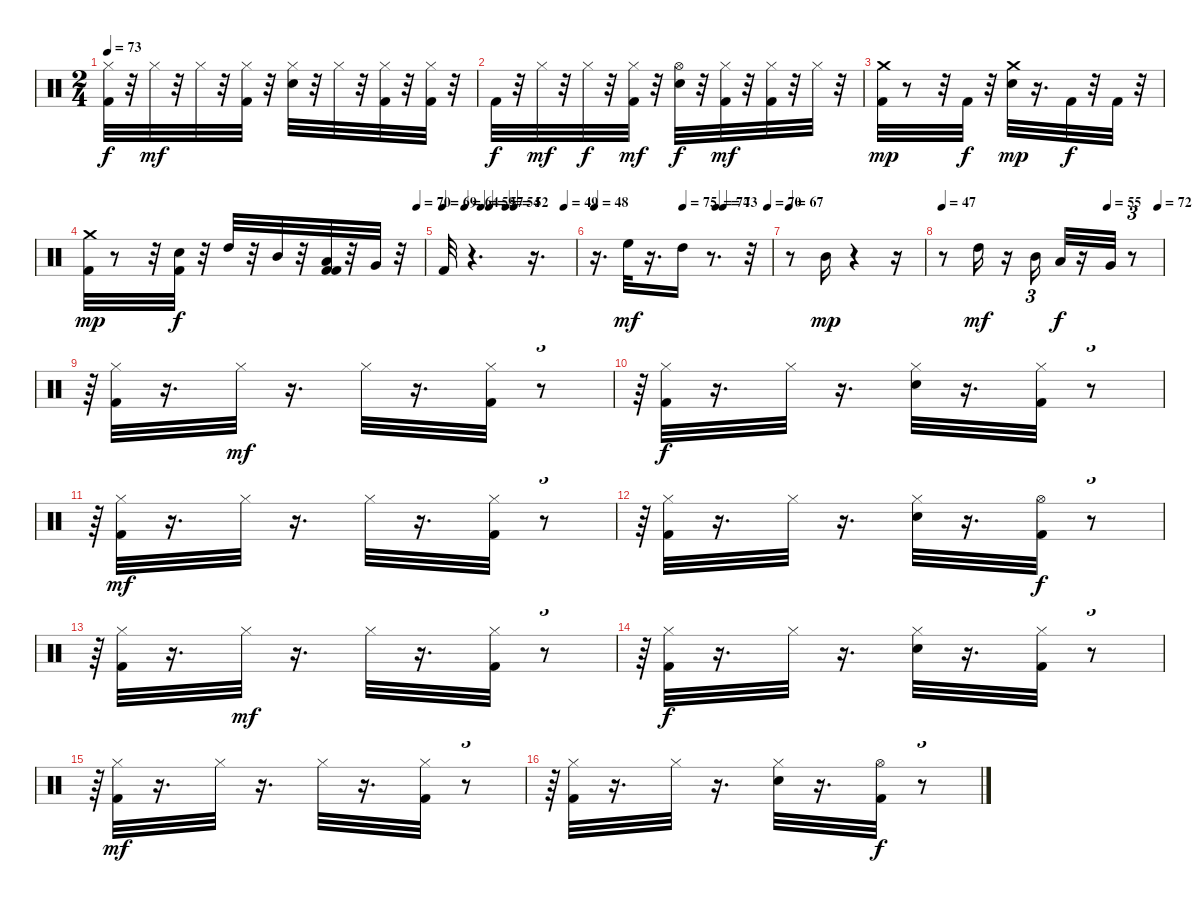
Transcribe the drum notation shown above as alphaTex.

\track "" {instrument percussion}
\staff {score}
\articulation defaults
\ts (2 4)
\tempo 73
\clef neutral
\ks c
("Hi-Hat (closed)" "Kick (hit) 2").32{dy f} r.32 "Hi-Hat (closed)".32{dy mf} r.32 "Hi-Hat (closed)".32 r.32 ("Hi-Hat (closed)" "Kick (hit) 2").32 r.32 ("Hi-Hat (closed)" "Snare (hit) 2").32 r.32 "Hi-Hat (closed)".32 r.32 ("Kick (hit) 2" "Hi-Hat (closed)").32 r.32 ("Kick (hit) 2" "Hi-Hat (closed)").32 r.32 |
"Kick (hit) 2".32{dy f} r.32 "Hi-Hat (closed)".32{dy mf} r.32 "Hi-Hat (closed)".32{dy f} r.32 ("Kick (hit) 2" "Hi-Hat (closed)").32{dy mf} r.32 ("Snare (hit) 2" "Hi-Hat (open)").32{dy f} r.32 ("Kick (hit) 2" "Hi-Hat (closed)").32{dy mf} r.32 ("Hi-Hat (closed)" "Kick (hit) 2").32 r.32 "Hi-Hat (closed)".32 r.32 |
("Crash medium (hit)" "Kick (hit) 2").32{dy mp} r.8 r.32 "Kick (hit) 2".32{dy f} r.32 ("Snare (hit) 2" "Crash medium (hit)").32{dy mp} r.16{d} "Kick (hit) 2".32{dy f} r.32 "Kick (hit) 2".32 r.32 |
\tempo (70 0.9791666666666666)
("Kick (hit) 2" "Crash medium (hit)").32{dy mp} r.8 r.32 ("Kick (hit) 2" "Snare (hit) 2").32{dy f} r.32 "High Tom (hit)".32 r.32 "Mid Tom (hit)".32 r.32 ("Kick (hit) 2" "Low Tom (hit)" "Kick (hit) 2").32 r.32 "Very Low Tom (hit)".32 r.32 |
\tempo 69
\tempo (64 0.16666666666666666)
\tempo (59 0.2916666666666667)
\tempo (57 0.3541666666666667)
\tempo (54 0.4791666666666667)
\tempo (52 0.5416666666666666)
\tempo (49 0.9166666666666666)
"Kick (hit) 2".32 r.4{d} r.16{d} |
\tempo 48
\tempo (75 0.5)
\tempo (74 0.6875)
\tempo (73 0.7291666666666666)
\tempo (70 0.9791666666666666)
r.16{d} "High Floor Tom (hit)".32{dy mf} r.16{d} "High Tom (hit)".16 r.8{d} r.32 |
\tempo 67
r.8 "Mid Tom (hit)".16{dy mp} r.4 r.16 |
\tempo 47
\tempo (55 0.75)
\tempo (72 0.9791666666666666)
r.8 "High Tom (hit)".16{dy mf} r.16 "Mid Tom (hit)".16{tu (3 2)} "Low Tom (hit)".32{dy f} r.16 "Very Low Tom (hit)".32 r.8{tu (3 2)} |
r.64{tu (3 2)} ("Hi-Hat (closed)" "Kick (hit) 2").32 r.16{d} "Hi-Hat (closed)".32{dy mf} r.16{d} "Hi-Hat (closed)".32 r.16{d} ("Hi-Hat (closed)" "Kick (hit) 2").32 r.8{tu (3 2)} |
r.64{tu (3 2)} ("Hi-Hat (closed)" "Kick (hit) 2").32{dy f} r.16{d} "Hi-Hat (closed)".32 r.16{d} ("Hi-Hat (closed)" "Snare (hit) 2").32 r.16{d} ("Kick (hit) 2" "Hi-Hat (closed)").32 r.8{tu (3 2)} |
r.64{tu (3 2)} ("Kick (hit) 2" "Hi-Hat (closed)").32{dy mf} r.16{d} "Hi-Hat (closed)".32 r.16{d} "Hi-Hat (closed)".32 r.16{d} ("Hi-Hat (closed)" "Kick (hit) 2").32 r.8{tu (3 2)} |
r.64{tu (3 2)} ("Hi-Hat (closed)" "Kick (hit) 2").32 r.16{d} "Hi-Hat (closed)".32 r.16{d} ("Hi-Hat (closed)" "Snare (hit) 2").32 r.16{d} ("Hi-Hat (open)" "Kick (hit) 2").32{dy f} r.8{tu (3 2)} |
r.64{tu (3 2)} ("Hi-Hat (closed)" "Kick (hit) 2").32 r.16{d} "Hi-Hat (closed)".32{dy mf} r.16{d} "Hi-Hat (closed)".32 r.16{d} ("Hi-Hat (closed)" "Kick (hit) 2").32 r.8{tu (3 2)} |
r.64{tu (3 2)} ("Hi-Hat (closed)" "Kick (hit) 2").32{dy f} r.16{d} "Hi-Hat (closed)".32 r.16{d} ("Hi-Hat (closed)" "Snare (hit) 2").32 r.16{d} ("Kick (hit) 2" "Hi-Hat (closed)").32 r.8{tu (3 2)} |
r.64{tu (3 2)} ("Kick (hit) 2" "Hi-Hat (closed)").32{dy mf} r.16{d} "Hi-Hat (closed)".32 r.16{d} "Hi-Hat (closed)".32 r.16{d} ("Hi-Hat (closed)" "Kick (hit) 2").32 r.8{tu (3 2)} |
r.64{tu (3 2)} ("Hi-Hat (closed)" "Kick (hit) 2").32 r.16{d} "Hi-Hat (closed)".32 r.16{d} ("Hi-Hat (closed)" "Snare (hit) 2").32 r.16{d} ("Hi-Hat (open)" "Kick (hit) 2").32{dy f} r.8{tu (3 2)}
